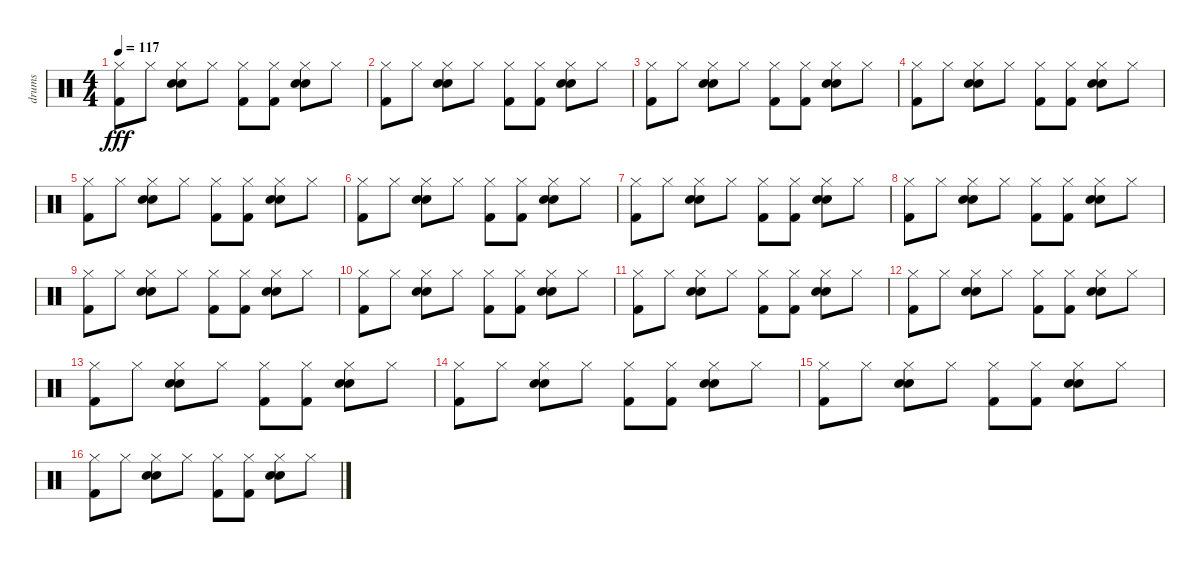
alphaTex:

\track ("drums" "drums") {instrument percussion}
\staff {score}
\articulation defaults
\ts (4 4)
\tempo 117
\clef neutral
\ks c
("Kick (hit) 2" "Hi-Hat (closed)").8{dy fff} "Hi-Hat (closed)".8 ("Hi-Hat (closed)" "Electric Snare (hit)" "Electric Snare (hit)").8 "Hi-Hat (closed)".8 ("Kick (hit) 2" "Hi-Hat (closed)").8 ("Kick (hit) 2" "Hi-Hat (closed)").8 ("Hi-Hat (closed)" "Electric Snare (hit)" "Electric Snare (hit)").8 "Hi-Hat (closed)".8 |
("Kick (hit) 2" "Hi-Hat (closed)").8 "Hi-Hat (closed)".8 ("Hi-Hat (closed)" "Electric Snare (hit)" "Electric Snare (hit)").8 "Hi-Hat (closed)".8 ("Kick (hit) 2" "Hi-Hat (closed)").8 ("Kick (hit) 2" "Hi-Hat (closed)").8 ("Hi-Hat (closed)" "Electric Snare (hit)" "Electric Snare (hit)").8 "Hi-Hat (closed)".8 |
("Kick (hit) 2" "Hi-Hat (closed)").8 "Hi-Hat (closed)".8 ("Hi-Hat (closed)" "Electric Snare (hit)" "Electric Snare (hit)").8 "Hi-Hat (closed)".8 ("Kick (hit) 2" "Hi-Hat (closed)").8 ("Kick (hit) 2" "Hi-Hat (closed)").8 ("Hi-Hat (closed)" "Electric Snare (hit)" "Electric Snare (hit)").8 "Hi-Hat (closed)".8 |
("Kick (hit) 2" "Hi-Hat (closed)").8 "Hi-Hat (closed)".8 ("Hi-Hat (closed)" "Electric Snare (hit)" "Electric Snare (hit)").8 "Hi-Hat (closed)".8 ("Kick (hit) 2" "Hi-Hat (closed)").8 ("Kick (hit) 2" "Hi-Hat (closed)").8 ("Hi-Hat (closed)" "Electric Snare (hit)" "Electric Snare (hit)").8 "Hi-Hat (closed)".8 |
("Kick (hit) 2" "Hi-Hat (closed)").8 "Hi-Hat (closed)".8 ("Hi-Hat (closed)" "Electric Snare (hit)" "Electric Snare (hit)").8 "Hi-Hat (closed)".8 ("Kick (hit) 2" "Hi-Hat (closed)").8 ("Kick (hit) 2" "Hi-Hat (closed)").8 ("Hi-Hat (closed)" "Electric Snare (hit)" "Electric Snare (hit)").8 "Hi-Hat (closed)".8 |
("Kick (hit) 2" "Hi-Hat (closed)").8 "Hi-Hat (closed)".8 ("Hi-Hat (closed)" "Electric Snare (hit)" "Electric Snare (hit)").8 "Hi-Hat (closed)".8 ("Kick (hit) 2" "Hi-Hat (closed)").8 ("Kick (hit) 2" "Hi-Hat (closed)").8 ("Hi-Hat (closed)" "Electric Snare (hit)" "Electric Snare (hit)").8 "Hi-Hat (closed)".8 |
("Kick (hit) 2" "Hi-Hat (closed)").8 "Hi-Hat (closed)".8 ("Hi-Hat (closed)" "Electric Snare (hit)" "Electric Snare (hit)").8 "Hi-Hat (closed)".8 ("Kick (hit) 2" "Hi-Hat (closed)").8 ("Kick (hit) 2" "Hi-Hat (closed)").8 ("Hi-Hat (closed)" "Electric Snare (hit)" "Electric Snare (hit)").8 "Hi-Hat (closed)".8 |
("Kick (hit) 2" "Hi-Hat (closed)").8 "Hi-Hat (closed)".8 ("Hi-Hat (closed)" "Electric Snare (hit)" "Electric Snare (hit)").8 "Hi-Hat (closed)".8 ("Kick (hit) 2" "Hi-Hat (closed)").8 ("Kick (hit) 2" "Hi-Hat (closed)").8 ("Hi-Hat (closed)" "Electric Snare (hit)" "Electric Snare (hit)").8 "Hi-Hat (closed)".8 |
("Kick (hit) 2" "Hi-Hat (closed)").8 "Hi-Hat (closed)".8 ("Hi-Hat (closed)" "Electric Snare (hit)" "Electric Snare (hit)").8 "Hi-Hat (closed)".8 ("Kick (hit) 2" "Hi-Hat (closed)").8 ("Kick (hit) 2" "Hi-Hat (closed)").8 ("Hi-Hat (closed)" "Electric Snare (hit)" "Electric Snare (hit)").8 "Hi-Hat (closed)".8 |
("Kick (hit) 2" "Hi-Hat (closed)").8 "Hi-Hat (closed)".8 ("Hi-Hat (closed)" "Electric Snare (hit)" "Electric Snare (hit)").8 "Hi-Hat (closed)".8 ("Kick (hit) 2" "Hi-Hat (closed)").8 ("Kick (hit) 2" "Hi-Hat (closed)").8 ("Hi-Hat (closed)" "Electric Snare (hit)" "Electric Snare (hit)").8 "Hi-Hat (closed)".8 |
("Kick (hit) 2" "Hi-Hat (closed)").8 "Hi-Hat (closed)".8 ("Hi-Hat (closed)" "Electric Snare (hit)" "Electric Snare (hit)").8 "Hi-Hat (closed)".8 ("Kick (hit) 2" "Hi-Hat (closed)").8 ("Kick (hit) 2" "Hi-Hat (closed)").8 ("Hi-Hat (closed)" "Electric Snare (hit)" "Electric Snare (hit)").8 "Hi-Hat (closed)".8 |
("Kick (hit) 2" "Hi-Hat (closed)").8 "Hi-Hat (closed)".8 ("Hi-Hat (closed)" "Electric Snare (hit)" "Electric Snare (hit)").8 "Hi-Hat (closed)".8 ("Kick (hit) 2" "Hi-Hat (closed)").8 ("Kick (hit) 2" "Hi-Hat (closed)").8 ("Hi-Hat (closed)" "Electric Snare (hit)" "Electric Snare (hit)").8 "Hi-Hat (closed)".8 |
("Kick (hit) 2" "Hi-Hat (closed)").8 "Hi-Hat (closed)".8 ("Hi-Hat (closed)" "Electric Snare (hit)" "Electric Snare (hit)").8 "Hi-Hat (closed)".8 ("Kick (hit) 2" "Hi-Hat (closed)").8 ("Kick (hit) 2" "Hi-Hat (closed)").8 ("Hi-Hat (closed)" "Electric Snare (hit)" "Electric Snare (hit)").8 "Hi-Hat (closed)".8 |
("Kick (hit) 2" "Hi-Hat (closed)").8 "Hi-Hat (closed)".8 ("Hi-Hat (closed)" "Electric Snare (hit)" "Electric Snare (hit)").8 "Hi-Hat (closed)".8 ("Kick (hit) 2" "Hi-Hat (closed)").8 ("Kick (hit) 2" "Hi-Hat (closed)").8 ("Hi-Hat (closed)" "Electric Snare (hit)" "Electric Snare (hit)").8 "Hi-Hat (closed)".8 |
("Kick (hit) 2" "Hi-Hat (closed)").8 "Hi-Hat (closed)".8 ("Hi-Hat (closed)" "Electric Snare (hit)" "Electric Snare (hit)").8 "Hi-Hat (closed)".8 ("Kick (hit) 2" "Hi-Hat (closed)").8 ("Kick (hit) 2" "Hi-Hat (closed)").8 ("Hi-Hat (closed)" "Electric Snare (hit)" "Electric Snare (hit)").8 "Hi-Hat (closed)".8 |
("Kick (hit) 2" "Hi-Hat (closed)").8 "Hi-Hat (closed)".8 ("Hi-Hat (closed)" "Electric Snare (hit)" "Electric Snare (hit)").8 "Hi-Hat (closed)".8 ("Kick (hit) 2" "Hi-Hat (closed)").8 ("Kick (hit) 2" "Hi-Hat (closed)").8 ("Hi-Hat (closed)" "Electric Snare (hit)" "Electric Snare (hit)").8 "Hi-Hat (closed)".8
